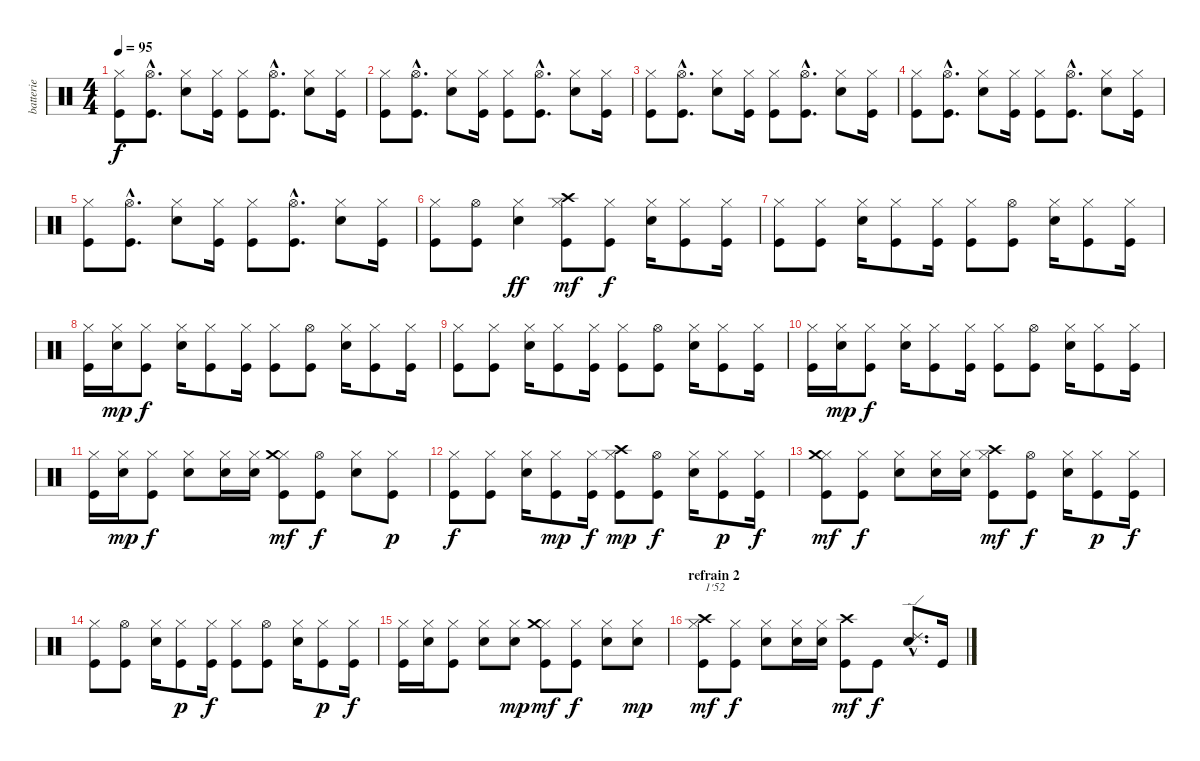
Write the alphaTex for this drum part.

\track ("batterie" "batterie") {instrument percussion}
\staff {score}
\articulation defaults
\ts (4 4)
\tempo 95
\clef neutral
\ks c
("Hi-Hat (closed)" "Kick (hit)").8{dy f} ("Hi-Hat (open)"{hac} "Kick (hit)"{hac}).8{d} ("Hi-Hat (closed)" "Electric Snare (hit)").8 ("Hi-Hat (closed)" "Kick (hit)").16 ("Hi-Hat (closed)" "Kick (hit)").8 ("Hi-Hat (open)"{hac} "Kick (hit)"{hac}).8{d} ("Hi-Hat (closed)" "Electric Snare (hit)").8 ("Hi-Hat (closed)" "Kick (hit)").16 |
("Hi-Hat (closed)" "Kick (hit)").8 ("Hi-Hat (open)"{hac} "Kick (hit)"{hac}).8{d} ("Hi-Hat (closed)" "Electric Snare (hit)").8 ("Hi-Hat (closed)" "Kick (hit)").16 ("Hi-Hat (closed)" "Kick (hit)").8 ("Hi-Hat (open)"{hac} "Kick (hit)"{hac}).8{d} ("Hi-Hat (closed)" "Electric Snare (hit)").8 ("Hi-Hat (closed)" "Kick (hit)").16 |
("Hi-Hat (closed)" "Kick (hit)").8 ("Hi-Hat (open)"{hac} "Kick (hit)"{hac}).8{d} ("Hi-Hat (closed)" "Electric Snare (hit)").8 ("Hi-Hat (closed)" "Kick (hit)").16 ("Hi-Hat (closed)" "Kick (hit)").8 ("Hi-Hat (open)"{hac} "Kick (hit)"{hac}).8{d} ("Hi-Hat (closed)" "Electric Snare (hit)").8 ("Hi-Hat (closed)" "Kick (hit)").16 |
("Hi-Hat (closed)" "Kick (hit)").8 ("Hi-Hat (open)"{hac} "Kick (hit)"{hac}).8{d} ("Hi-Hat (closed)" "Electric Snare (hit)").8 ("Hi-Hat (closed)" "Kick (hit)").16 ("Hi-Hat (closed)" "Kick (hit)").8 ("Hi-Hat (open)"{hac} "Kick (hit)"{hac}).8{d} ("Hi-Hat (closed)" "Electric Snare (hit)").8 ("Hi-Hat (closed)" "Kick (hit)").16 |
("Hi-Hat (closed)" "Kick (hit)").8 ("Hi-Hat (open)"{hac} "Kick (hit)"{hac}).8{d} ("Hi-Hat (closed)" "Electric Snare (hit)").8 ("Hi-Hat (closed)" "Kick (hit)").16 ("Hi-Hat (closed)" "Kick (hit)").8 ("Hi-Hat (open)"{hac} "Kick (hit)"{hac}).8{d} ("Hi-Hat (closed)" "Electric Snare (hit)").8 ("Hi-Hat (closed)" "Kick (hit)").16 |
("Hi-Hat (closed)" "Kick (hit)").8 ("Hi-Hat (open)" "Kick (hit)").8 ("Hi-Hat (closed)" "Electric Snare (hit)").4{dy ff} ("Hi-Hat (closed)" "Kick (hit)" "Crash high (hit)").8{dy mf} ("Hi-Hat (closed)" "Kick (hit)").8{dy f} ("Hi-Hat (closed)" "Electric Snare (hit)").16 ("Hi-Hat (closed)" "Kick (hit)").8 ("Hi-Hat (closed)" "Kick (hit)").16 |
("Hi-Hat (closed)" "Kick (hit)").8 ("Hi-Hat (closed)" "Kick (hit)").8 ("Hi-Hat (closed)" "Electric Snare (hit)").16 ("Hi-Hat (closed)" "Kick (hit)").8 ("Hi-Hat (closed)" "Kick (hit)").16 ("Hi-Hat (closed)" "Kick (hit)").8 ("Hi-Hat (open)" "Kick (hit)").8 ("Hi-Hat (closed)" "Electric Snare (hit)").16 ("Hi-Hat (closed)" "Kick (hit)").8 ("Hi-Hat (closed)" "Kick (hit)").16 |
("Hi-Hat (closed)" "Kick (hit)").16 ("Hi-Hat (closed)" "Electric Snare (hit)").16{dy mp} ("Hi-Hat (closed)" "Kick (hit)").8{dy f} ("Hi-Hat (closed)" "Electric Snare (hit)").16 ("Hi-Hat (closed)" "Kick (hit)").8 ("Hi-Hat (closed)" "Kick (hit)").16 ("Hi-Hat (closed)" "Kick (hit)").8 ("Hi-Hat (open)" "Kick (hit)").8 ("Hi-Hat (closed)" "Electric Snare (hit)").16 ("Hi-Hat (closed)" "Kick (hit)").8 ("Hi-Hat (closed)" "Kick (hit)").16 |
("Hi-Hat (closed)" "Kick (hit)").8 ("Hi-Hat (closed)" "Kick (hit)").8 ("Hi-Hat (closed)" "Electric Snare (hit)").16 ("Hi-Hat (closed)" "Kick (hit)").8 ("Hi-Hat (closed)" "Kick (hit)").16 ("Hi-Hat (closed)" "Kick (hit)").8 ("Hi-Hat (open)" "Kick (hit)").8 ("Hi-Hat (closed)" "Electric Snare (hit)").16 ("Hi-Hat (closed)" "Kick (hit)").8 ("Hi-Hat (closed)" "Kick (hit)").16 |
("Hi-Hat (closed)" "Kick (hit)").16 ("Hi-Hat (closed)" "Electric Snare (hit)").16{dy mp} ("Hi-Hat (closed)" "Kick (hit)").8{dy f} ("Hi-Hat (closed)" "Electric Snare (hit)").16 ("Hi-Hat (closed)" "Kick (hit)").8 ("Hi-Hat (closed)" "Kick (hit)").16 ("Hi-Hat (closed)" "Kick (hit)").8 ("Hi-Hat (open)" "Kick (hit)").8 ("Hi-Hat (closed)" "Electric Snare (hit)").16 ("Hi-Hat (closed)" "Kick (hit)").8 ("Hi-Hat (closed)" "Kick (hit)").16 |
("Hi-Hat (closed)" "Kick (hit)").16 ("Hi-Hat (closed)" "Electric Snare (hit)").16{dy mp} ("Hi-Hat (closed)" "Kick (hit)").8{dy f} ("Hi-Hat (closed)" "Electric Snare (hit)").8 ("Hi-Hat (closed)" "Electric Snare (hit)").16 ("Hi-Hat (closed)" "Electric Snare (hit)").16 ("Hi-Hat (closed)" "Kick (hit)" "Crash medium (hit)").8{dy mf} ("Hi-Hat (open)" "Kick (hit)").8{dy f} ("Hi-Hat (closed)" "Electric Snare (hit)").8 ("Hi-Hat (closed)" "Kick (hit)").8{dy p} |
("Hi-Hat (closed)" "Kick (hit)").8{dy f} ("Hi-Hat (closed)" "Kick (hit)").8 ("Hi-Hat (closed)" "Electric Snare (hit)").16 ("Hi-Hat (closed)" "Kick (hit)").8{dy mp} ("Hi-Hat (closed)" "Kick (hit)").16{dy f} ("Hi-Hat (closed)" "Kick (hit)" "Crash high (hit)").8{dy mp} ("Hi-Hat (open)" "Kick (hit)").8{dy f} ("Hi-Hat (closed)" "Electric Snare (hit)").16 ("Hi-Hat (closed)" "Kick (hit)").8{dy p} ("Hi-Hat (closed)" "Kick (hit)").16{dy f} |
("Hi-Hat (closed)" "Kick (hit)" "Crash medium (hit)").8{dy mf} ("Hi-Hat (closed)" "Kick (hit)").8{dy f} ("Hi-Hat (closed)" "Electric Snare (hit)").8 ("Hi-Hat (closed)" "Electric Snare (hit)").16 ("Hi-Hat (closed)" "Electric Snare (hit)").16 ("Hi-Hat (closed)" "Kick (hit)" "Crash high (hit)").8{dy mf} ("Hi-Hat (open)" "Kick (hit)").8{dy f} ("Hi-Hat (closed)" "Electric Snare (hit)").16 ("Hi-Hat (closed)" "Kick (hit)").8{dy p} ("Hi-Hat (closed)" "Kick (hit)").16{dy f} |
("Hi-Hat (closed)" "Kick (hit)").8 ("Hi-Hat (open)" "Kick (hit)").8 ("Hi-Hat (closed)" "Electric Snare (hit)").16 ("Hi-Hat (closed)" "Kick (hit)").8{dy p} ("Hi-Hat (closed)" "Kick (hit)").16{dy f} ("Hi-Hat (closed)" "Kick (hit)").8 ("Hi-Hat (open)" "Kick (hit)").8 ("Hi-Hat (closed)" "Electric Snare (hit)").16 ("Hi-Hat (closed)" "Kick (hit)").8{dy p} ("Hi-Hat (closed)" "Kick (hit)").16{dy f} |
("Hi-Hat (closed)" "Kick (hit)").16 ("Hi-Hat (closed)" "Electric Snare (hit)").16 ("Hi-Hat (closed)" "Kick (hit)").8 ("Hi-Hat (closed)" "Electric Snare (hit)").8 ("Hi-Hat (closed)" "Electric Snare (hit)").8{dy mp} ("Hi-Hat (closed)" "Kick (hit)" "Crash medium (hit)").8{dy mf} ("Hi-Hat (closed)" "Kick (hit)").8{dy f} ("Hi-Hat (closed)" "Electric Snare (hit)").8 ("Hi-Hat (closed)" "Electric Snare (hit)").8{dy mp} |
\section ("" "refrain 2")
("Hi-Hat (closed)" "Kick (hit)" "Crash high (hit)").8{txt "1'52" dy mf} ("Hi-Hat (closed)" "Kick (hit)").8{dy f} ("Hi-Hat (closed)" "Electric Snare (hit)").8 ("Hi-Hat (closed)" "Electric Snare (hit)").16 ("Hi-Hat (closed)" "Electric Snare (hit)").16 ("Kick (hit)" "Crash high (hit)").8{dy mf} "Kick (hit)".8{dy f} ("Ride (edge) 2"{hac} "Electric Snare (hit)"{hac}).8{d} "Kick (hit)".16
